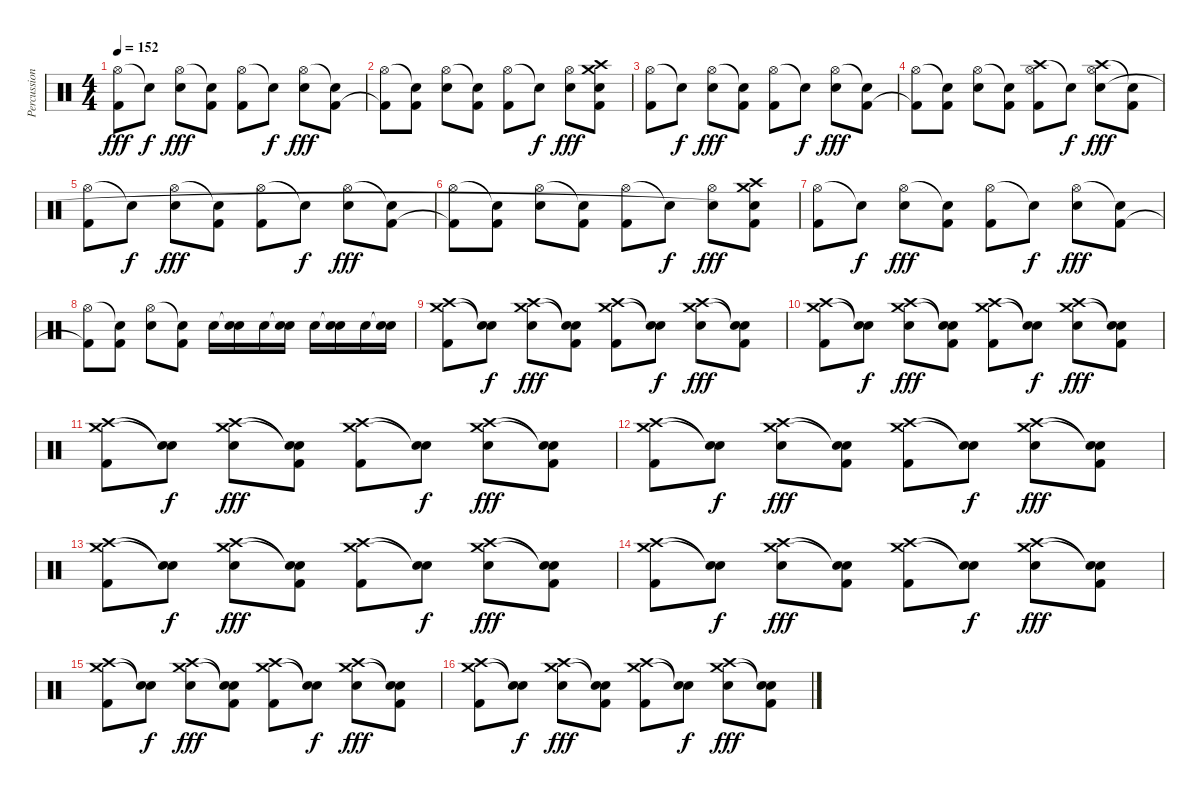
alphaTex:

\track ("Percussion" "Percussion") {instrument percussion}
\staff {score}
\articulation defaults
\ts (4 4)
\tempo 152
\clef neutral
\ks c
("Hi-Hat (open)" "Kick (hit) 2").8{dy fff} "Snare (hit)"{t}.8{dy f} ("Hi-Hat (open)" "Electric Snare (hit)").8{dy fff} ("Snare (hit)"{t} "Kick (hit) 2").8 ("Hi-Hat (open)" "Kick (hit) 2").8 "Snare (hit)"{t}.8{dy f} ("Hi-Hat (open)" "Electric Snare (hit)").8{dy fff} ("Snare (hit)"{t} "Kick (hit) 2").8 |
("Hi-Hat (open)" "Kick (hit) 2"{t}).8 ("Snare (hit)"{t} "Kick (hit) 2").8 ("Hi-Hat (open)" "Electric Snare (hit)").8 ("Snare (hit)"{t} "Kick (hit) 2").8 ("Hi-Hat (open)" "Kick (hit) 2").8 "Snare (hit)"{t}.8{dy f} ("Hi-Hat (open)" "Electric Snare (hit)").8{dy fff} ("Crash medium (hit)" "Crash high (hit)" "Snare (hit)"{t} "Kick (hit) 2").8 |
("Hi-Hat (open)" "Kick (hit) 2").8 "Snare (hit)"{t}.8{dy f} ("Hi-Hat (open)" "Electric Snare (hit)").8{dy fff} ("Snare (hit)"{t} "Kick (hit) 2").8 ("Hi-Hat (open)" "Kick (hit) 2").8 "Snare (hit)"{t}.8{dy f} ("Hi-Hat (open)" "Electric Snare (hit)").8{dy fff} ("Snare (hit)"{t} "Kick (hit) 2").8 |
("Hi-Hat (open)" "Kick (hit) 2"{t}).8 ("Snare (hit)"{t} "Kick (hit) 2").8 ("Hi-Hat (open)" "Electric Snare (hit)").8 ("Snare (hit)"{t} "Kick (hit) 2").8 ("Crash high (hit)" "Hi-Hat (open)" "Kick (hit) 2").8 "Snare (hit)"{t}.8{dy f} ("Crash high (hit)" "Hi-Hat (open)" "Electric Snare (hit)").8{dy fff} ("Snare (hit)"{t} "Kick (hit) 2").8 |
("Hi-Hat (open)" "Kick (hit) 2").8 "Snare (hit)"{t}.8{dy f} ("Hi-Hat (open)" "Electric Snare (hit)").8{dy fff} ("Snare (hit)"{t} "Kick (hit) 2").8 ("Hi-Hat (open)" "Kick (hit) 2").8 "Snare (hit)"{t}.8{dy f} ("Hi-Hat (open)" "Electric Snare (hit)").8{dy fff} ("Snare (hit)"{t} "Kick (hit) 2").8 |
("Hi-Hat (open)" "Kick (hit) 2"{t}).8 ("Snare (hit)"{t} "Kick (hit) 2").8 ("Hi-Hat (open)" "Electric Snare (hit)").8 ("Snare (hit)"{t} "Kick (hit) 2").8 ("Hi-Hat (open)" "Kick (hit) 2").8 "Snare (hit)"{t}.8{dy f} ("Hi-Hat (open)" "Electric Snare (hit)").8{dy fff} ("Crash medium (hit)" "Crash high (hit)" "Snare (hit)"{t} "Kick (hit) 2").8 |
("Hi-Hat (open)" "Kick (hit) 2").8 "Snare (hit)"{t}.8{dy f} ("Hi-Hat (open)" "Electric Snare (hit)").8{dy fff} ("Snare (hit)"{t} "Kick (hit) 2").8 ("Hi-Hat (open)" "Kick (hit) 2").8 "Snare (hit)"{t}.8{dy f} ("Hi-Hat (open)" "Electric Snare (hit)").8{dy fff} ("Snare (hit)"{t} "Kick (hit) 2").8 |
("Hi-Hat (open)" "Kick (hit) 2"{t}).8 ("Snare (hit)"{t} "Kick (hit) 2").8 ("Hi-Hat (open)" "Electric Snare (hit)").8 ("Snare (hit)"{t} "Kick (hit) 2").8 "Electric Snare (hit)".16 ("Snare (hit)"{t} "Electric Snare (hit)").16 "Electric Snare (hit)".16 ("Snare (hit)"{t} "Electric Snare (hit)").16 "Electric Snare (hit)".16 ("Snare (hit)"{t} "Electric Snare (hit)").16 "Electric Snare (hit)".16 ("Snare (hit)"{t} "Electric Snare (hit)").16 |
("Crash medium (hit)" "Crash high (hit)" "Kick (hit) 2").8 ("Snare (hit)"{t} "Snare (hit)"{t}).8{dy f} ("Crash medium (hit)" "Crash high (hit)" "Electric Snare (hit)").8{dy fff} ("Snare (hit)"{t} "Snare (hit)"{t} "Kick (hit) 2").8 ("Crash medium (hit)" "Crash high (hit)" "Kick (hit) 2").8 ("Snare (hit)"{t} "Snare (hit)"{t}).8{dy f} ("Crash medium (hit)" "Crash high (hit)" "Electric Snare (hit)").8{dy fff} ("Snare (hit)"{t} "Snare (hit)"{t} "Kick (hit) 2").8 |
("Crash medium (hit)" "Crash high (hit)" "Kick (hit) 2").8 ("Snare (hit)"{t} "Snare (hit)"{t}).8{dy f} ("Crash medium (hit)" "Crash high (hit)" "Electric Snare (hit)").8{dy fff} ("Snare (hit)"{t} "Snare (hit)"{t} "Kick (hit) 2").8 ("Crash medium (hit)" "Crash high (hit)" "Kick (hit) 2").8 ("Snare (hit)"{t} "Snare (hit)"{t}).8{dy f} ("Crash medium (hit)" "Crash high (hit)" "Electric Snare (hit)").8{dy fff} ("Snare (hit)"{t} "Snare (hit)"{t} "Kick (hit) 2").8 |
("Crash medium (hit)" "Crash high (hit)" "Kick (hit) 2").8 ("Snare (hit)"{t} "Snare (hit)"{t}).8{dy f} ("Crash medium (hit)" "Crash high (hit)" "Electric Snare (hit)").8{dy fff} ("Snare (hit)"{t} "Snare (hit)"{t} "Kick (hit) 2").8 ("Crash medium (hit)" "Crash high (hit)" "Kick (hit) 2").8 ("Snare (hit)"{t} "Snare (hit)"{t}).8{dy f} ("Crash medium (hit)" "Crash high (hit)" "Electric Snare (hit)").8{dy fff} ("Snare (hit)"{t} "Snare (hit)"{t} "Kick (hit) 2").8 |
("Crash medium (hit)" "Crash high (hit)" "Kick (hit) 2").8 ("Snare (hit)"{t} "Snare (hit)"{t}).8{dy f} ("Crash medium (hit)" "Crash high (hit)" "Electric Snare (hit)").8{dy fff} ("Snare (hit)"{t} "Snare (hit)"{t} "Kick (hit) 2").8 ("Crash medium (hit)" "Crash high (hit)" "Kick (hit) 2").8 ("Snare (hit)"{t} "Snare (hit)"{t}).8{dy f} ("Crash medium (hit)" "Crash high (hit)" "Electric Snare (hit)").8{dy fff} ("Snare (hit)"{t} "Snare (hit)"{t} "Kick (hit) 2").8 |
("Crash medium (hit)" "Crash high (hit)" "Kick (hit) 2").8 ("Snare (hit)"{t} "Snare (hit)"{t}).8{dy f} ("Crash medium (hit)" "Crash high (hit)" "Electric Snare (hit)").8{dy fff} ("Snare (hit)"{t} "Snare (hit)"{t} "Kick (hit) 2").8 ("Crash medium (hit)" "Crash high (hit)" "Kick (hit) 2").8 ("Snare (hit)"{t} "Snare (hit)"{t}).8{dy f} ("Crash medium (hit)" "Crash high (hit)" "Electric Snare (hit)").8{dy fff} ("Snare (hit)"{t} "Snare (hit)"{t} "Kick (hit) 2").8 |
("Crash medium (hit)" "Crash high (hit)" "Kick (hit) 2").8 ("Snare (hit)"{t} "Snare (hit)"{t}).8{dy f} ("Crash medium (hit)" "Crash high (hit)" "Electric Snare (hit)").8{dy fff} ("Snare (hit)"{t} "Snare (hit)"{t} "Kick (hit) 2").8 ("Crash medium (hit)" "Crash high (hit)" "Kick (hit) 2").8 ("Snare (hit)"{t} "Snare (hit)"{t}).8{dy f} ("Crash medium (hit)" "Crash high (hit)" "Electric Snare (hit)").8{dy fff} ("Snare (hit)"{t} "Snare (hit)"{t} "Kick (hit) 2").8 |
("Crash medium (hit)" "Crash high (hit)" "Kick (hit) 2").8 ("Snare (hit)"{t} "Snare (hit)"{t}).8{dy f} ("Crash medium (hit)" "Crash high (hit)" "Electric Snare (hit)").8{dy fff} ("Snare (hit)"{t} "Snare (hit)"{t} "Kick (hit) 2").8 ("Crash medium (hit)" "Crash high (hit)" "Kick (hit) 2").8 ("Snare (hit)"{t} "Snare (hit)"{t}).8{dy f} ("Crash medium (hit)" "Crash high (hit)" "Electric Snare (hit)").8{dy fff} ("Snare (hit)"{t} "Snare (hit)"{t} "Kick (hit) 2").8 |
("Crash medium (hit)" "Crash high (hit)" "Kick (hit) 2").8 ("Snare (hit)"{t} "Snare (hit)"{t}).8{dy f} ("Crash medium (hit)" "Crash high (hit)" "Electric Snare (hit)").8{dy fff} ("Snare (hit)"{t} "Snare (hit)"{t} "Kick (hit) 2").8 ("Crash medium (hit)" "Crash high (hit)" "Kick (hit) 2").8 ("Snare (hit)"{t} "Snare (hit)"{t}).8{dy f} ("Crash medium (hit)" "Crash high (hit)" "Electric Snare (hit)").8{dy fff} ("Snare (hit)"{t} "Snare (hit)"{t} "Kick (hit) 2").8
